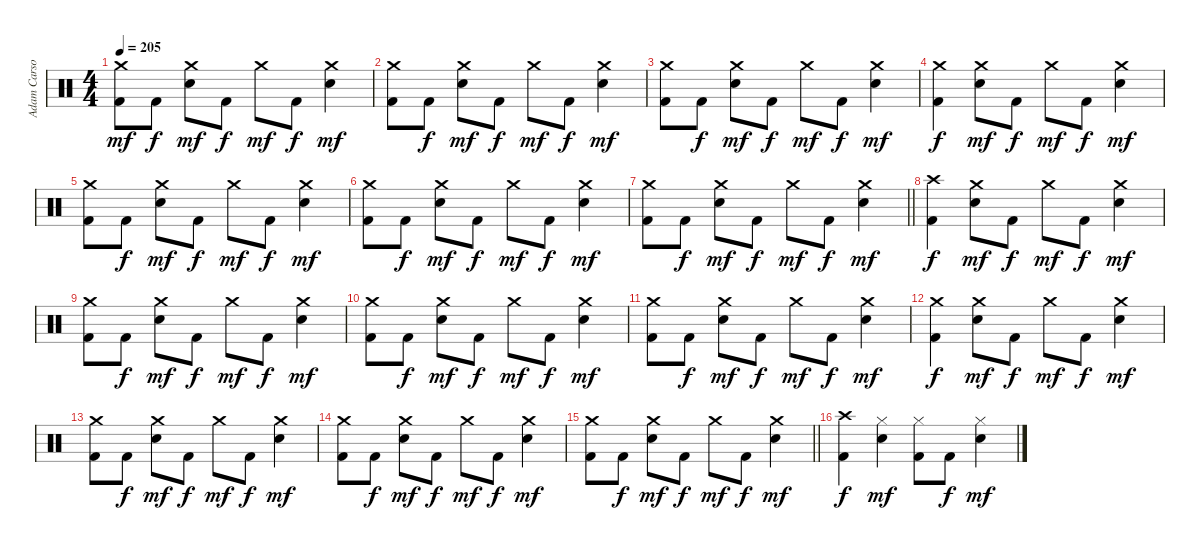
\track ("Adam Carson" "Adam Carso") {instrument percussion}
\staff {score}
\articulation defaults
\ts (4 4)
\tempo 205
\clef neutral
\ks aminor
("Crash medium (hit)" "Kick (hit) 2").8{dy mf} "Kick (hit) 2".8{dy f} ("Crash medium (hit)" "Snare (hit) 2").8{dy mf} "Kick (hit) 2".8{dy f} "Crash medium (hit)".8{dy mf} "Kick (hit) 2".8{dy f} ("Crash medium (hit)" "Snare (hit) 2").4{dy mf} |
("Crash medium (hit)" "Kick (hit) 2").8 "Kick (hit) 2".8{dy f} ("Crash medium (hit)" "Snare (hit) 2").8{dy mf} "Kick (hit) 2".8{dy f} "Crash medium (hit)".8{dy mf} "Kick (hit) 2".8{dy f} ("Crash medium (hit)" "Snare (hit) 2").4{dy mf} |
("Crash medium (hit)" "Kick (hit) 2").8 "Kick (hit) 2".8{dy f} ("Crash medium (hit)" "Snare (hit) 2").8{dy mf} "Kick (hit) 2".8{dy f} "Crash medium (hit)".8{dy mf} "Kick (hit) 2".8{dy f} ("Crash medium (hit)" "Snare (hit) 2").4{dy mf} |
("Crash medium (hit)" "Kick (hit) 2").4{dy f} ("Crash medium (hit)" "Snare (hit) 2").8{dy mf} "Kick (hit) 2".8{dy f} "Crash medium (hit)".8{dy mf} "Kick (hit) 2".8{dy f} ("Crash medium (hit)" "Snare (hit) 2").4{dy mf} |
("Crash medium (hit)" "Kick (hit) 2").8 "Kick (hit) 2".8{dy f} ("Crash medium (hit)" "Snare (hit) 2").8{dy mf} "Kick (hit) 2".8{dy f} "Crash medium (hit)".8{dy mf} "Kick (hit) 2".8{dy f} ("Crash medium (hit)" "Snare (hit) 2").4{dy mf} |
("Crash medium (hit)" "Kick (hit) 2").8 "Kick (hit) 2".8{dy f} ("Crash medium (hit)" "Snare (hit) 2").8{dy mf} "Kick (hit) 2".8{dy f} "Crash medium (hit)".8{dy mf} "Kick (hit) 2".8{dy f} ("Crash medium (hit)" "Snare (hit) 2").4{dy mf} |
\barLineRight lightlight
("Crash medium (hit)" "Kick (hit) 2").8 "Kick (hit) 2".8{dy f} ("Crash medium (hit)" "Snare (hit) 2").8{dy mf} "Kick (hit) 2".8{dy f} "Crash medium (hit)".8{dy mf} "Kick (hit) 2".8{dy f} ("Crash medium (hit)" "Snare (hit) 2").4{dy mf} |
("Crash high (hit)" "Kick (hit) 2").4{dy f} ("Crash medium (hit)" "Snare (hit) 2").8{dy mf} "Kick (hit) 2".8{dy f} "Crash medium (hit)".8{dy mf} "Kick (hit) 2".8{dy f} ("Crash medium (hit)" "Snare (hit) 2").4{dy mf} |
("Crash medium (hit)" "Kick (hit) 2").8 "Kick (hit) 2".8{dy f} ("Crash medium (hit)" "Snare (hit) 2").8{dy mf} "Kick (hit) 2".8{dy f} "Crash medium (hit)".8{dy mf} "Kick (hit) 2".8{dy f} ("Crash medium (hit)" "Snare (hit) 2").4{dy mf} |
("Crash medium (hit)" "Kick (hit) 2").8 "Kick (hit) 2".8{dy f} ("Crash medium (hit)" "Snare (hit) 2").8{dy mf} "Kick (hit) 2".8{dy f} "Crash medium (hit)".8{dy mf} "Kick (hit) 2".8{dy f} ("Crash medium (hit)" "Snare (hit) 2").4{dy mf} |
("Crash medium (hit)" "Kick (hit) 2").8 "Kick (hit) 2".8{dy f} ("Crash medium (hit)" "Snare (hit) 2").8{dy mf} "Kick (hit) 2".8{dy f} "Crash medium (hit)".8{dy mf} "Kick (hit) 2".8{dy f} ("Crash medium (hit)" "Snare (hit) 2").4{dy mf} |
("Crash medium (hit)" "Kick (hit) 2").4{dy f} ("Crash medium (hit)" "Snare (hit) 2").8{dy mf} "Kick (hit) 2".8{dy f} "Crash medium (hit)".8{dy mf} "Kick (hit) 2".8{dy f} ("Crash medium (hit)" "Snare (hit) 2").4{dy mf} |
("Crash medium (hit)" "Kick (hit) 2").8 "Kick (hit) 2".8{dy f} ("Crash medium (hit)" "Snare (hit) 2").8{dy mf} "Kick (hit) 2".8{dy f} "Crash medium (hit)".8{dy mf} "Kick (hit) 2".8{dy f} ("Crash medium (hit)" "Snare (hit) 2").4{dy mf} |
("Crash medium (hit)" "Kick (hit) 2").8 "Kick (hit) 2".8{dy f} ("Crash medium (hit)" "Snare (hit) 2").8{dy mf} "Kick (hit) 2".8{dy f} "Crash medium (hit)".8{dy mf} "Kick (hit) 2".8{dy f} ("Crash medium (hit)" "Snare (hit) 2").4{dy mf} |
\barLineRight lightlight
("Crash medium (hit)" "Kick (hit) 2").8 "Kick (hit) 2".8{dy f} ("Crash medium (hit)" "Snare (hit) 2").8{dy mf} "Kick (hit) 2".8{dy f} "Crash medium (hit)".8{dy mf} "Kick (hit) 2".8{dy f} ("Crash medium (hit)" "Snare (hit) 2").4{dy mf} |
("Crash high (hit)" "Kick (hit) 2").4{dy f} ("Hi-Hat (closed)" "Snare (hit) 2").4{dy mf} ("Hi-Hat (closed)" "Kick (hit) 2").8 "Kick (hit) 2".8{dy f} ("Hi-Hat (closed)" "Snare (hit) 2").4{dy mf}
